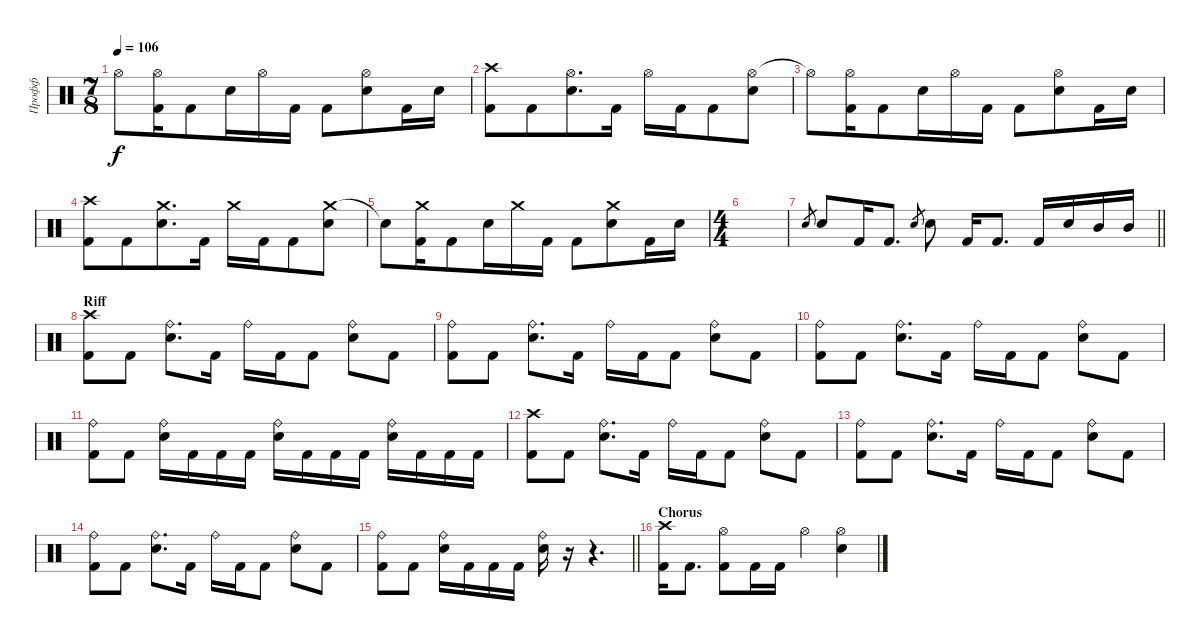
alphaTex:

\track ("Профф" "Профф") {instrument percussion}
\staff {score}
\articulation defaults
\ts (7 8)
\tempo 106
\clef neutral
\ks c "Hi-Hat (open)"{t}.8{dy f}
("Hi-Hat (open)" "Kick (hit) 2").16 "Kick (hit) 2".8 "Snare (hit) 2".16 "Hi-Hat (open)".16 "Kick (hit) 2".16 "Kick (hit) 2".8 ("Hi-Hat (open)" "Snare (hit) 2").8 "Kick (hit) 2".16 "Snare (hit) 2".16 |
("Crash high (hit)" "Kick (hit) 2").8 "Kick (hit) 2".8 ("Hi-Hat (open)" "Snare (hit) 2").8{d} "Kick (hit) 2".16 "Hi-Hat (open)".16 "Kick (hit) 2".16 "Kick (hit) 2".8 ("Hi-Hat (open)" "Snare (hit) 2").8 |
"Hi-Hat (open)"{t}.8 ("Hi-Hat (open)" "Kick (hit) 2").16 "Kick (hit) 2".8 "Snare (hit) 2".16 "Hi-Hat (open)".16 "Kick (hit) 2".16 "Kick (hit) 2".8 ("Hi-Hat (open)" "Snare (hit) 2").8 "Kick (hit) 2".16 "Snare (hit) 2".16 |
("Crash high (hit)" "Kick (hit) 2").8 "Kick (hit) 2".8 ("Crash medium (hit)" "Snare (hit) 2").8{d} "Kick (hit) 2".16 "Crash medium (hit)".16 "Kick (hit) 2".16 "Kick (hit) 2".8 ("Crash medium (hit)" "Snare (hit) 2").8 |
"Snare (hit)"{t}.8 ("Crash medium (hit)" "Kick (hit) 2").16 "Kick (hit) 2".8 "Snare (hit) 2".16 "Crash medium (hit)".16 "Kick (hit) 2".16 "Kick (hit) 2".8 ("Crash medium (hit)" "Snare (hit) 2").8 "Kick (hit) 2".16 "Snare (hit) 2".16 |
\ts (4 4)
|
\barLineRight lightlight "Snare (hit) 2".8{gr} "Snare (hit) 2".8 "Kick (hit) 2".16 "Kick (hit) 2".8{d} "Snare (hit) 2".8{gr} "Snare (hit) 2".8 "Kick (hit) 2".16 "Kick (hit) 2".8{d} "Kick (hit) 2".16 "Snare (hit) 2".16 "Mid Tom (hit)".16 "Mid Tom (hit)".16
|
\section ("" "Riff")
("Crash high (hit)" "Kick (hit) 2").8 "Kick (hit) 2".8 ("Ride (bell)" "Snare (hit) 2").8{d} "Kick (hit) 2".16 "Ride (bell)".16 "Kick (hit) 2".16 "Kick (hit) 2".8 ("Ride (bell)" "Snare (hit) 2").8 "Kick (hit) 2".8 |
("Ride (bell)" "Kick (hit) 2").8 "Kick (hit) 2".8 ("Ride (bell)" "Snare (hit) 2").8{d} "Kick (hit) 2".16 "Ride (bell)".16 "Kick (hit) 2".16 "Kick (hit) 2".8 ("Ride (bell)" "Snare (hit) 2").8 "Kick (hit) 2".8 |
("Ride (bell)" "Kick (hit) 2").8 "Kick (hit) 2".8 ("Ride (bell)" "Snare (hit) 2").8{d} "Kick (hit) 2".16 "Ride (bell)".16 "Kick (hit) 2".16 "Kick (hit) 2".8 ("Ride (bell)" "Snare (hit) 2").8 "Kick (hit) 2".8 |
("Ride (bell)" "Kick (hit) 2").8 "Kick (hit) 2".8 ("Ride (bell)" "Snare (hit) 2").16 "Kick (hit) 2".16 "Kick (hit) 2".16 "Kick (hit) 2".16 ("Ride (bell)" "Snare (hit) 2").16 "Kick (hit) 2".16 "Kick (hit) 2".16 "Kick (hit) 2".16 ("Ride (bell)" "Snare (hit) 2").16 "Kick (hit) 2".16 "Kick (hit) 2".16 "Kick (hit) 2".16 |
("Crash high (hit)" "Kick (hit) 2").8 "Kick (hit) 2".8 ("Ride (bell)" "Snare (hit) 2").8{d} "Kick (hit) 2".16 "Ride (bell)".16 "Kick (hit) 2".16 "Kick (hit) 2".8 ("Ride (bell)" "Snare (hit) 2").8 "Kick (hit) 2".8 |
("Ride (bell)" "Kick (hit) 2").8 "Kick (hit) 2".8 ("Ride (bell)" "Snare (hit) 2").8{d} "Kick (hit) 2".16 "Ride (bell)".16 "Kick (hit) 2".16 "Kick (hit) 2".8 ("Ride (bell)" "Snare (hit) 2").8 "Kick (hit) 2".8 |
("Ride (bell)" "Kick (hit) 2").8 "Kick (hit) 2".8 ("Ride (bell)" "Snare (hit) 2").8{d} "Kick (hit) 2".16 "Ride (bell)".16 "Kick (hit) 2".16 "Kick (hit) 2".8 ("Ride (bell)" "Snare (hit) 2").8 "Kick (hit) 2".8 |
\barLineRight lightlight
("Ride (bell)" "Kick (hit) 2").8 "Kick (hit) 2".8 ("Ride (bell)" "Snare (hit) 2").16 "Kick (hit) 2".16 "Kick (hit) 2".16 "Kick (hit) 2".16 ("Ride (bell)" "Snare (hit) 2").16 r.16 r.4{d} |
\section ("" "Chorus")
("Crash high (hit)" "Kick (hit) 2").16 "Kick (hit) 2".8{d} ("Hi-Hat (open)" "Kick (hit) 2").8 "Kick (hit) 2".16 "Kick (hit) 2".16 "Hi-Hat (open)".4 ("Hi-Hat (open)" "Snare (hit) 2").4
